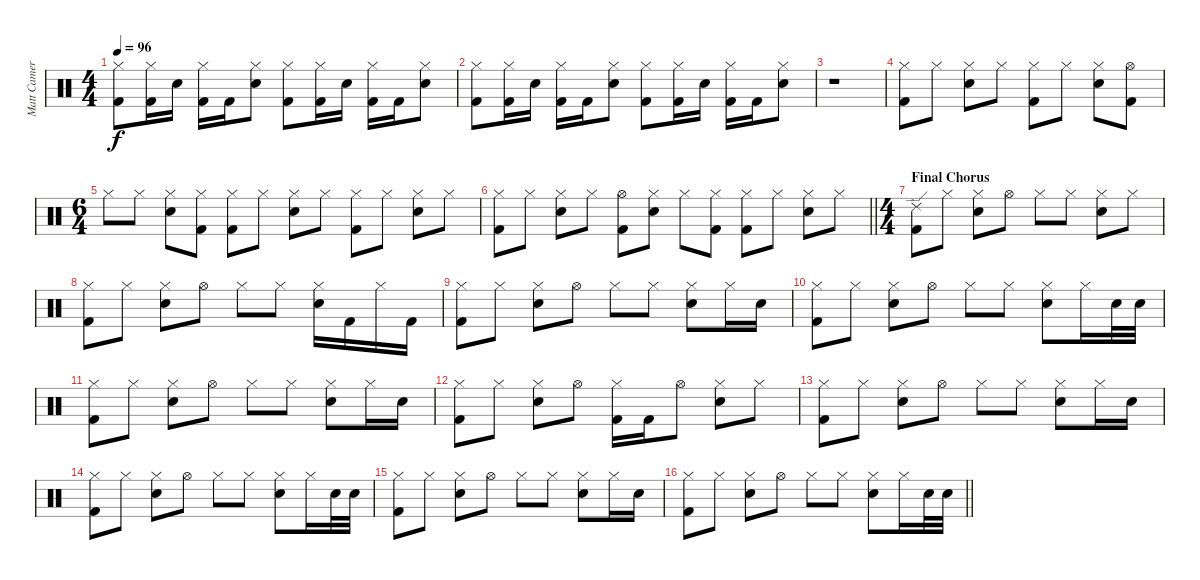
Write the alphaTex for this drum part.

\track ("Matt Cameron" "Matt Camer") {instrument percussion}
\staff {score}
\articulation defaults
\ts (4 4)
\tempo 96
\clef neutral
\ks c
("Hi-Hat (closed)" "Kick (hit) 2").8{dy f} ("Hi-Hat (closed)" "Kick (hit) 2").16 "Electric Snare (hit)".16 ("Hi-Hat (closed)" "Kick (hit) 2").16 "Kick (hit) 2".16 ("Hi-Hat (closed)" "Electric Snare (hit)").8 ("Hi-Hat (closed)" "Kick (hit) 2").8 ("Hi-Hat (closed)" "Kick (hit) 2").16 "Electric Snare (hit)".16 ("Hi-Hat (closed)" "Kick (hit) 2").16 "Kick (hit) 2".16 ("Hi-Hat (closed)" "Electric Snare (hit)").8 |
("Hi-Hat (closed)" "Kick (hit) 2").8 ("Hi-Hat (closed)" "Kick (hit) 2").16 "Electric Snare (hit)".16 ("Hi-Hat (closed)" "Kick (hit) 2").16 "Kick (hit) 2".16 ("Hi-Hat (closed)" "Electric Snare (hit)").8 ("Hi-Hat (closed)" "Kick (hit) 2").8 ("Hi-Hat (closed)" "Kick (hit) 2").16 "Electric Snare (hit)".16 ("Hi-Hat (closed)" "Kick (hit) 2").16 "Kick (hit) 2".16 ("Hi-Hat (closed)" "Electric Snare (hit)").8 |
r.1 |
("Hi-Hat (closed)" "Kick (hit) 2").8 "Hi-Hat (closed)".8 ("Hi-Hat (closed)" "Electric Snare (hit)").8 "Hi-Hat (closed)".8 ("Hi-Hat (closed)" "Kick (hit) 2").8 "Hi-Hat (closed)".8 ("Hi-Hat (closed)" "Electric Snare (hit)").8 ("Hi-Hat (open)" "Kick (hit) 2").8 |
\ts (6 4)
"Hi-Hat (closed)".8 "Hi-Hat (closed)".8 ("Hi-Hat (closed)" "Electric Snare (hit)").8 ("Hi-Hat (closed)" "Kick (hit) 2").8 ("Hi-Hat (closed)" "Kick (hit) 2").8 "Hi-Hat (closed)".8 ("Hi-Hat (closed)" "Electric Snare (hit)").8 "Hi-Hat (closed)".8 ("Hi-Hat (closed)" "Kick (hit) 2").8 "Hi-Hat (closed)".8 ("Hi-Hat (closed)" "Electric Snare (hit)").8 "Hi-Hat (closed)".8 |
\barLineRight lightlight
("Hi-Hat (closed)" "Kick (hit) 2").8 "Hi-Hat (closed)".8 ("Hi-Hat (closed)" "Electric Snare (hit)").8 "Hi-Hat (closed)".8 ("Hi-Hat (open)" "Kick (hit) 2").8 ("Hi-Hat (closed)" "Electric Snare (hit)").8 "Hi-Hat (closed)".8 ("Hi-Hat (closed)" "Kick (hit) 2").8 ("Hi-Hat (closed)" "Kick (hit) 2").8 "Hi-Hat (closed)".8 ("Hi-Hat (closed)" "Electric Snare (hit)").8 "Hi-Hat (closed)".8 |
\ts (4 4)
\section ("" "Final Chorus")
("Ride (edge) 2" "Kick (hit) 2").8 "Hi-Hat (closed)".8 ("Hi-Hat (closed)" "Electric Snare (hit)").8 "Hi-Hat (open)".8 "Hi-Hat (closed)".8 "Hi-Hat (closed)".8 ("Hi-Hat (closed)" "Electric Snare (hit)").8 "Hi-Hat (closed)".8 |
("Hi-Hat (closed)" "Kick (hit) 2").8 "Hi-Hat (closed)".8 ("Hi-Hat (closed)" "Electric Snare (hit)").8 "Hi-Hat (open)".8 "Hi-Hat (closed)".8 "Hi-Hat (closed)".8 ("Hi-Hat (closed)" "Electric Snare (hit)").16 "Kick (hit) 2".16 "Hi-Hat (closed)".16 "Kick (hit) 2".16 |
("Hi-Hat (closed)" "Kick (hit) 2").8 "Hi-Hat (closed)".8 ("Hi-Hat (closed)" "Electric Snare (hit)").8 "Hi-Hat (open)".8 "Hi-Hat (closed)".8 "Hi-Hat (closed)".8 ("Hi-Hat (closed)" "Electric Snare (hit)").8 "Hi-Hat (closed)".16 "Electric Snare (hit)".16 |
("Hi-Hat (closed)" "Kick (hit) 2").8 "Hi-Hat (closed)".8 ("Hi-Hat (closed)" "Electric Snare (hit)").8 "Hi-Hat (open)".8 "Hi-Hat (closed)".8 "Hi-Hat (closed)".8 ("Hi-Hat (closed)" "Electric Snare (hit)").8 "Hi-Hat (closed)".16 "Electric Snare (hit)".32 "Electric Snare (hit)".32 |
("Hi-Hat (closed)" "Kick (hit) 2").8 "Hi-Hat (closed)".8 ("Hi-Hat (closed)" "Electric Snare (hit)").8 "Hi-Hat (open)".8 "Hi-Hat (closed)".8 "Hi-Hat (closed)".8 ("Hi-Hat (closed)" "Electric Snare (hit)").8 "Hi-Hat (closed)".16 "Electric Snare (hit)".16 |
("Hi-Hat (closed)" "Kick (hit) 2").8 "Hi-Hat (closed)".8 ("Hi-Hat (closed)" "Electric Snare (hit)").8 "Hi-Hat (open)".8 ("Hi-Hat (closed)" "Kick (hit) 2").16 "Kick (hit) 2".16 "Hi-Hat (open)".8 ("Hi-Hat (closed)" "Electric Snare (hit)").8 "Hi-Hat (closed)".8 |
("Hi-Hat (closed)" "Kick (hit) 2").8 "Hi-Hat (closed)".8 ("Hi-Hat (closed)" "Electric Snare (hit)").8 "Hi-Hat (open)".8 "Hi-Hat (closed)".8 "Hi-Hat (closed)".8 ("Hi-Hat (closed)" "Electric Snare (hit)").8 "Hi-Hat (closed)".16 "Electric Snare (hit)".16 |
("Hi-Hat (closed)" "Kick (hit) 2").8 "Hi-Hat (closed)".8 ("Hi-Hat (closed)" "Electric Snare (hit)").8 "Hi-Hat (open)".8 "Hi-Hat (closed)".8 "Hi-Hat (closed)".8 ("Hi-Hat (closed)" "Electric Snare (hit)").8 "Hi-Hat (closed)".16 "Electric Snare (hit)".32 "Electric Snare (hit)".32 |
("Hi-Hat (closed)" "Kick (hit) 2").8 "Hi-Hat (closed)".8 ("Hi-Hat (closed)" "Electric Snare (hit)").8 "Hi-Hat (open)".8 "Hi-Hat (closed)".8 "Hi-Hat (closed)".8 ("Hi-Hat (closed)" "Electric Snare (hit)").8 "Hi-Hat (closed)".16 "Electric Snare (hit)".16 |
\barLineRight lightlight
("Hi-Hat (closed)" "Kick (hit) 2").8 "Hi-Hat (closed)".8 ("Hi-Hat (closed)" "Electric Snare (hit)").8 "Hi-Hat (open)".8 "Hi-Hat (closed)".8 "Hi-Hat (closed)".8 ("Hi-Hat (closed)" "Electric Snare (hit)").8 "Hi-Hat (closed)".16 "Electric Snare (hit)".32 "Electric Snare (hit)".32
